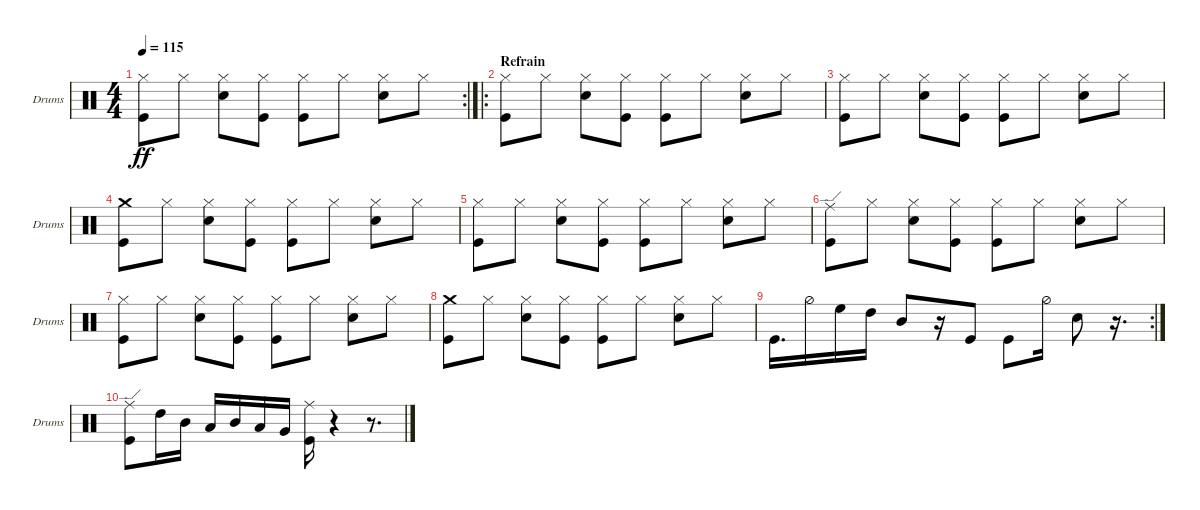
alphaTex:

\defaultSystemsLayout 4
\bracketExtendMode groupsimilarinstruments
\singleTrackTrackNamePolicy allsystems
\multiTrackTrackNamePolicy allsystems
\firstSystemTrackNameOrientation horizontal
\otherSystemsTrackNameOrientation horizontal
\track ("Drumkit" "Drums") {instrument percussion}
\staff {score}
\articulation defaults
\rc 2
\ts (4 4)
\tempo 115
\clef neutral
\ks c
("Kick (hit)" "Hi-Hat (closed)").8{dy ff} "Hi-Hat (closed)".8 ("Hi-Hat (closed)" "Snare (hit) 2").8 ("Kick (hit)" "Hi-Hat (closed)").8 ("Hi-Hat (closed)" "Kick (hit)").8 "Hi-Hat (closed)".8 ("Hi-Hat (closed)" "Snare (hit) 2").8 "Hi-Hat (closed)".8 |
\ro
\section ("" "Refrain")
("Kick (hit)" "Hi-Hat (closed)").8 "Hi-Hat (closed)".8 ("Hi-Hat (closed)" "Snare (hit) 2").8 ("Kick (hit)" "Hi-Hat (closed)").8 ("Hi-Hat (closed)" "Kick (hit)").8 "Hi-Hat (closed)".8 ("Hi-Hat (closed)" "Snare (hit) 2").8 "Hi-Hat (closed)".8 |
("Kick (hit)" "Hi-Hat (closed)").8 "Hi-Hat (closed)".8 ("Hi-Hat (closed)" "Snare (hit) 2").8 ("Kick (hit)" "Hi-Hat (closed)").8 ("Hi-Hat (closed)" "Kick (hit)").8 "Hi-Hat (closed)".8 ("Hi-Hat (closed)" "Snare (hit) 2").8 "Hi-Hat (closed)".8 |
("Kick (hit)" "Crash medium (hit)").8 "Hi-Hat (closed)".8 ("Hi-Hat (closed)" "Snare (hit) 2").8 ("Kick (hit)" "Hi-Hat (closed)").8 ("Hi-Hat (closed)" "Kick (hit)").8 "Hi-Hat (closed)".8 ("Hi-Hat (closed)" "Snare (hit) 2").8 "Hi-Hat (closed)".8 |
("Kick (hit)" "Hi-Hat (closed)").8 "Hi-Hat (closed)".8 ("Hi-Hat (closed)" "Snare (hit) 2").8 ("Kick (hit)" "Hi-Hat (closed)").8 ("Hi-Hat (closed)" "Kick (hit)").8 "Hi-Hat (closed)".8 ("Hi-Hat (closed)" "Snare (hit) 2").8 "Hi-Hat (closed)".8 |
("Kick (hit)" "Ride (edge)").8 "Hi-Hat (closed)".8 ("Hi-Hat (closed)" "Snare (hit) 2").8 ("Kick (hit)" "Hi-Hat (closed)").8 ("Hi-Hat (closed)" "Kick (hit)").8 "Hi-Hat (closed)".8 ("Hi-Hat (closed)" "Snare (hit) 2").8 "Hi-Hat (closed)".8 |
("Kick (hit)" "Hi-Hat (closed)").8 "Hi-Hat (closed)".8 ("Hi-Hat (closed)" "Snare (hit) 2").8 ("Kick (hit)" "Hi-Hat (closed)").8 ("Hi-Hat (closed)" "Kick (hit)").8 "Hi-Hat (closed)".8 ("Hi-Hat (closed)" "Snare (hit) 2").8 "Hi-Hat (closed)".8 |
("Kick (hit)" "Crash medium (hit)").8 "Hi-Hat (closed)".8 ("Hi-Hat (closed)" "Snare (hit) 2").8 ("Kick (hit)" "Hi-Hat (closed)").8 ("Hi-Hat (closed)" "Kick (hit)").8 "Hi-Hat (closed)".8 ("Hi-Hat (closed)" "Snare (hit) 2").8 "Hi-Hat (closed)".8 |
\rc 2 "Kick (hit)".16{d} "Hi-Hat (half)".16 "High Floor Tom (hit)".16 "High Tom (hit)".16 "Mid Tom (hit)".8
r.16 "Kick (hit)".8 "Kick (hit)".8 "Hi-Hat (half)".16 "Snare (hit) 2".8 r.16{d} |
("Kick (hit)" "Ride (edge)").8 "High Tom (hit)".16 "Mid Tom (hit)".16 "Low Tom (hit)".16 "Mid Tom (hit)".16 "Low Tom (hit)".16 "Very Low Tom (hit)".16 ("Kick (hit)" "Ride (middle)").16 r.4 r.8{d}
